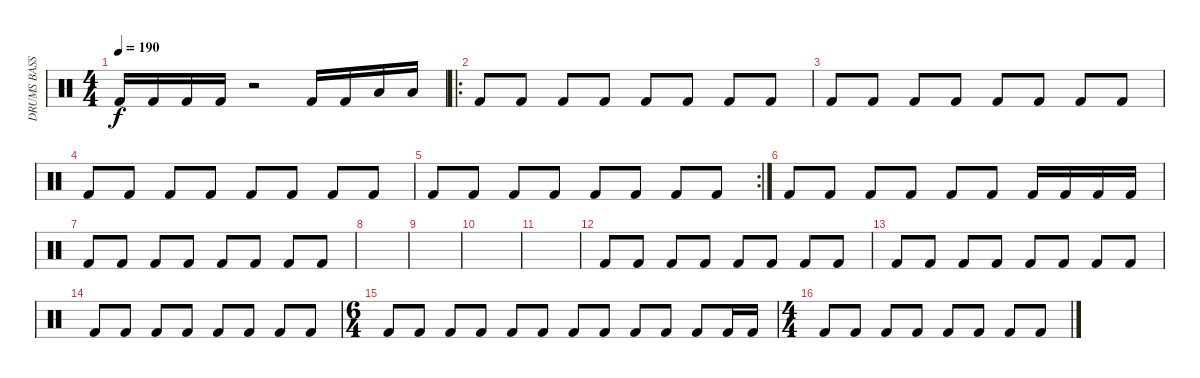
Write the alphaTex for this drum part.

\track ("DRUMS BASS" "DRUMS BASS") {instrument percussion}
\staff {score}
\articulation defaults
\ts (4 4)
\tempo 190
\clef neutral
\ks c "Kick (hit) 2".16{dy f} "Kick (hit) 2".16 "Kick (hit) 2".16 "Kick (hit) 2".16
r.2 "Kick (hit) 2".16 "Kick (hit) 2".16 "Low Tom (hit)".16 "Low Tom (hit)".16 |
\ro "Kick (hit) 2".8 "Kick (hit) 2".8 "Kick (hit) 2".8 "Kick (hit) 2".8 "Kick (hit) 2".8 "Kick (hit) 2".8 "Kick (hit) 2".8 "Kick (hit) 2".8
|
"Kick (hit) 2".8 "Kick (hit) 2".8 "Kick (hit) 2".8 "Kick (hit) 2".8 "Kick (hit) 2".8 "Kick (hit) 2".8 "Kick (hit) 2".8 "Kick (hit) 2".8 |
"Kick (hit) 2".8 "Kick (hit) 2".8 "Kick (hit) 2".8 "Kick (hit) 2".8 "Kick (hit) 2".8 "Kick (hit) 2".8 "Kick (hit) 2".8 "Kick (hit) 2".8 |
\rc 2 "Kick (hit) 2".8 "Kick (hit) 2".8 "Kick (hit) 2".8 "Kick (hit) 2".8 "Kick (hit) 2".8 "Kick (hit) 2".8 "Kick (hit) 2".8 "Kick (hit) 2".8
|
"Kick (hit) 2".8 "Kick (hit) 2".8 "Kick (hit) 2".8 "Kick (hit) 2".8 "Kick (hit) 2".8 "Kick (hit) 2".8 "Kick (hit) 2".16 "Kick (hit) 2".16 "Kick (hit) 2".16 "Kick (hit) 2".16 |
"Kick (hit) 2".8 "Kick (hit) 2".8 "Kick (hit) 2".8 "Kick (hit) 2".8 "Kick (hit) 2".8 "Kick (hit) 2".8 "Kick (hit) 2".8 "Kick (hit) 2".8 |
|
|
|
|
"Kick (hit) 2".8 "Kick (hit) 2".8 "Kick (hit) 2".8 "Kick (hit) 2".8 "Kick (hit) 2".8 "Kick (hit) 2".8 "Kick (hit) 2".8 "Kick (hit) 2".8 |
"Kick (hit) 2".8 "Kick (hit) 2".8 "Kick (hit) 2".8 "Kick (hit) 2".8 "Kick (hit) 2".8 "Kick (hit) 2".8 "Kick (hit) 2".8 "Kick (hit) 2".8 |
"Kick (hit) 2".8 "Kick (hit) 2".8 "Kick (hit) 2".8 "Kick (hit) 2".8 "Kick (hit) 2".8 "Kick (hit) 2".8 "Kick (hit) 2".8 "Kick (hit) 2".8 |
\ts (6 4)
"Kick (hit) 2".8 "Kick (hit) 2".8 "Kick (hit) 2".8 "Kick (hit) 2".8 "Kick (hit) 2".8 "Kick (hit) 2".8 "Kick (hit) 2".8 "Kick (hit) 2".8 "Kick (hit) 2".8 "Kick (hit) 2".8 "Kick (hit) 2".8 "Kick (hit) 2".16 "Kick (hit) 2".16 |
\ts (4 4)
"Kick (hit) 2".8 "Kick (hit) 2".8 "Kick (hit) 2".8 "Kick (hit) 2".8 "Kick (hit) 2".8 "Kick (hit) 2".8 "Kick (hit) 2".8 "Kick (hit) 2".8
